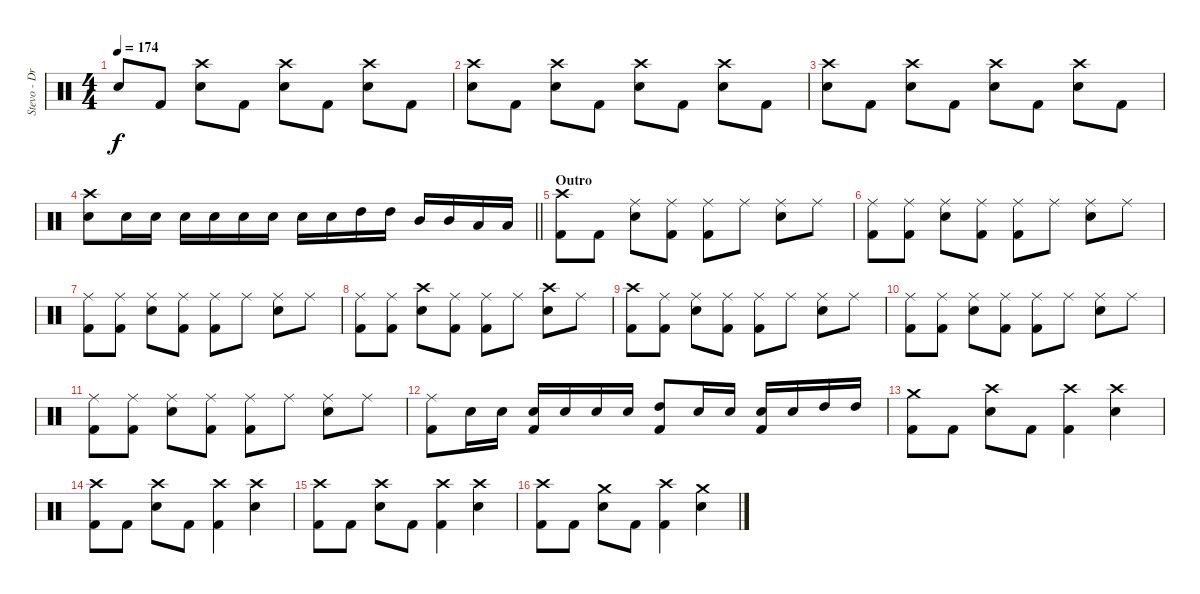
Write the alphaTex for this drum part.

\track ("Stevo - Drums" "Stevo - Dr") {instrument percussion}
\staff {score}
\articulation defaults
\ts (4 4)
\tempo 174
\clef neutral
\ks c "Snare (hit)"{t}.8{dy f} "Kick (hit) 2".8
("Crash high (hit)" "Electric Snare (hit)").8 "Kick (hit) 2".8 ("Crash high (hit)" "Electric Snare (hit)").8 "Kick (hit) 2".8 ("Crash high (hit)" "Electric Snare (hit)").8 "Kick (hit) 2".8 |
("Crash high (hit)" "Electric Snare (hit)").8 "Kick (hit) 2".8 ("Crash high (hit)" "Electric Snare (hit)").8 "Kick (hit) 2".8 ("Crash high (hit)" "Electric Snare (hit)").8 "Kick (hit) 2".8 ("Crash high (hit)" "Electric Snare (hit)").8 "Kick (hit) 2".8 |
("Crash high (hit)" "Electric Snare (hit)").8 "Kick (hit) 2".8 ("Crash high (hit)" "Electric Snare (hit)").8 "Kick (hit) 2".8 ("Crash high (hit)" "Electric Snare (hit)").8 "Kick (hit) 2".8 ("Crash high (hit)" "Electric Snare (hit)").8 "Kick (hit) 2".8 |
\barLineRight lightlight
("Crash high (hit)" "Electric Snare (hit)").8 "Electric Snare (hit)".16 "Electric Snare (hit)".16 "Electric Snare (hit)".16 "Electric Snare (hit)".16 "Electric Snare (hit)".16 "Electric Snare (hit)".16 "Electric Snare (hit)".16 "Electric Snare (hit)".16 "High Tom (hit)".16 "High Tom (hit)".16 "Mid Tom (hit)".16 "Mid Tom (hit)".16 "Low Floor Tom (hit)".16 "Low Floor Tom (hit)".16 |
\section ("" "Outro")
("Crash high (hit)" "Kick (hit) 2").8 "Kick (hit) 2".8 ("Ride (middle)" "Electric Snare (hit)").8 ("Ride (middle)" "Kick (hit) 2").8 ("Ride (middle)" "Kick (hit) 2").8 "Ride (middle)".8 ("Ride (middle)" "Electric Snare (hit)").8 "Ride (middle)".8 |
("Ride (middle)" "Kick (hit) 2").8 ("Ride (middle)" "Kick (hit) 2").8 ("Ride (middle)" "Electric Snare (hit)").8 ("Ride (middle)" "Kick (hit) 2").8 ("Ride (middle)" "Kick (hit) 2").8 "Ride (middle)".8 ("Ride (middle)" "Electric Snare (hit)").8 "Ride (middle)".8 |
("Ride (middle)" "Kick (hit) 2").8 ("Ride (middle)" "Kick (hit) 2").8 ("Ride (middle)" "Electric Snare (hit)").8 ("Ride (middle)" "Kick (hit) 2").8 ("Ride (middle)" "Kick (hit) 2").8 "Ride (middle)".8 ("Ride (middle)" "Electric Snare (hit)").8 "Ride (middle)".8 |
("Ride (middle)" "Kick (hit) 2").8 ("Ride (middle)" "Kick (hit) 2").8 ("Crash high (hit)" "Electric Snare (hit)").8 ("Ride (middle)" "Kick (hit) 2").8 ("Ride (middle)" "Kick (hit) 2").8 "Ride (middle)".8 ("Crash high (hit)" "Electric Snare (hit)").8 "Ride (middle)".8 |
("Crash high (hit)" "Kick (hit) 2").8 ("Ride (middle)" "Kick (hit) 2").8 ("Ride (middle)" "Electric Snare (hit)").8 ("Ride (middle)" "Kick (hit) 2").8 ("Ride (middle)" "Kick (hit) 2").8 "Ride (middle)".8 ("Ride (middle)" "Electric Snare (hit)").8 "Ride (middle)".8 |
("Ride (middle)" "Kick (hit) 2").8 ("Ride (middle)" "Kick (hit) 2").8 ("Ride (middle)" "Electric Snare (hit)").8 ("Ride (middle)" "Kick (hit) 2").8 ("Ride (middle)" "Kick (hit) 2").8 "Ride (middle)".8 ("Ride (middle)" "Electric Snare (hit)").8 "Ride (middle)".8 |
("Ride (middle)" "Kick (hit) 2").8 ("Ride (middle)" "Kick (hit) 2").8 ("Ride (middle)" "Electric Snare (hit)").8 ("Ride (middle)" "Kick (hit) 2").8 ("Ride (middle)" "Kick (hit) 2").8 "Ride (middle)".8 ("Ride (middle)" "Electric Snare (hit)").8 "Ride (middle)".8 |
("Ride (middle)" "Kick (hit) 2").8 "Electric Snare (hit)".16 "Electric Snare (hit)".16 ("Electric Snare (hit)" "Kick (hit) 2").16 "Electric Snare (hit)".16 "Electric Snare (hit)".16 "Electric Snare (hit)".16 ("High Tom (hit)" "Kick (hit) 2").8 "Electric Snare (hit)".16 "Electric Snare (hit)".16 ("Electric Snare (hit)" "Kick (hit) 2").16 "Electric Snare (hit)".16 "High Tom (hit)".16 "High Tom (hit)".16 |
("Crash medium (hit)" "Kick (hit) 2").8 "Kick (hit) 2".8 ("Crash high (hit)" "Electric Snare (hit)").8 "Kick (hit) 2".8 ("Crash high (hit)" "Kick (hit) 2").4 ("Crash high (hit)" "Electric Snare (hit)").4 |
("Crash high (hit)" "Kick (hit) 2").8 "Kick (hit) 2".8 ("Crash high (hit)" "Electric Snare (hit)").8 "Kick (hit) 2".8 ("Crash high (hit)" "Kick (hit) 2").4 ("Crash high (hit)" "Electric Snare (hit)").4 |
("Crash high (hit)" "Kick (hit) 2").8 "Kick (hit) 2".8 ("Crash high (hit)" "Electric Snare (hit)").8 "Kick (hit) 2".8 ("Crash high (hit)" "Kick (hit) 2").4 ("Crash high (hit)" "Electric Snare (hit)").4 |
("Crash high (hit)" "Kick (hit) 2").8 "Kick (hit) 2".8 ("Crash medium (hit)" "Electric Snare (hit)").8 "Kick (hit) 2".8 ("Crash high (hit)" "Kick (hit) 2").4 ("Crash medium (hit)" "Electric Snare (hit)").4
